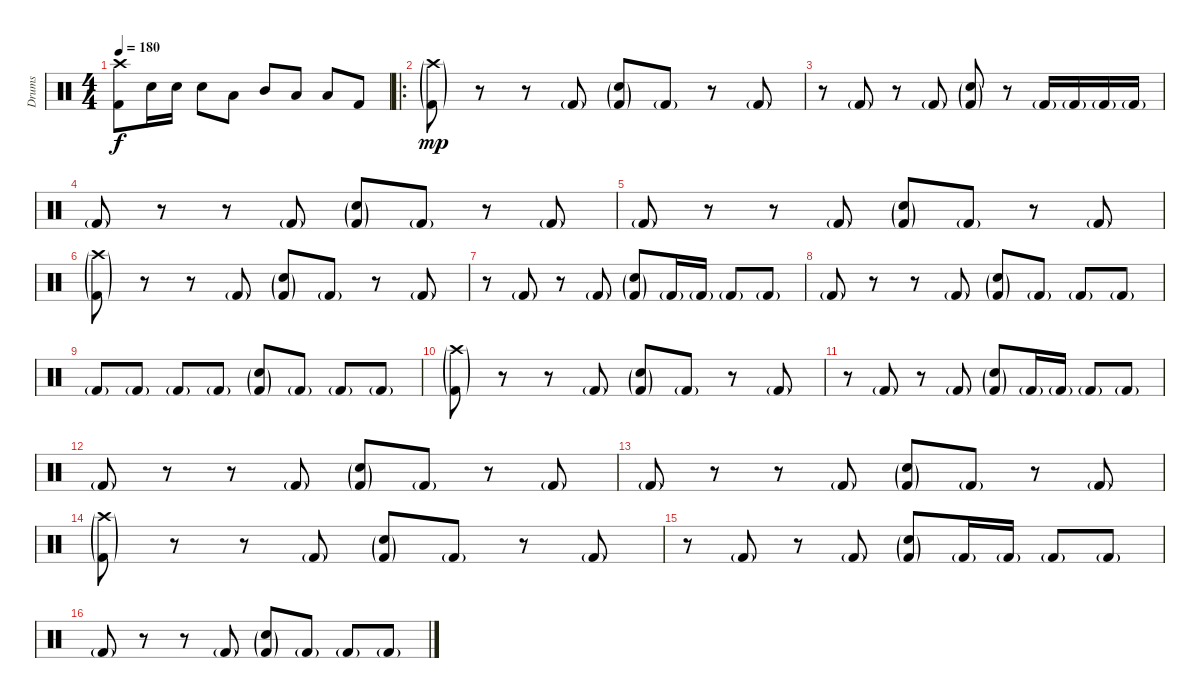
\track ("Drums" "Drums") {instrument percussion}
\staff {score}
\articulation defaults
\ts (4 4)
\tempo 180
\clef neutral
\ks c
("Crash high (hit)" "Kick (hit) 2").8{dy f} "Snare (hit) 2".16 "Snare (hit) 2".16 "Snare (hit) 2".8 "Low Tom (hit)".8 "Mid Tom (hit)".8 "Low Tom (hit)".8 "Low Floor Tom (hit)".8 "Kick (hit) 2".8 |
\ro
("Crash high (hit)"{g} "Kick (hit) 2"{g}).8{dy mp} r.8 r.8 "Kick (hit) 2"{g}.8 ("Snare (hit) 2"{g} "Kick (hit) 2"{g}).8 "Kick (hit) 2"{g}.8 r.8 "Kick (hit) 2"{g}.8 |
r.8 "Kick (hit) 2"{g}.8 r.8 "Kick (hit) 2"{g}.8 ("Snare (hit) 2"{g} "Kick (hit) 2"{g}).8 r.8 "Kick (hit) 2"{g}.16 "Kick (hit) 2"{g}.16 "Kick (hit) 2"{g}.16 "Kick (hit) 2"{g}.16 |
"Kick (hit) 2"{g}.8 r.8 r.8 "Kick (hit) 2"{g}.8 ("Snare (hit) 2"{g} "Kick (hit) 2"{g}).8 "Kick (hit) 2"{g}.8 r.8 "Kick (hit) 2"{g}.8 |
"Kick (hit) 2"{g}.8 r.8 r.8 "Kick (hit) 2"{g}.8 ("Snare (hit) 2"{g} "Kick (hit) 2"{g}).8 "Kick (hit) 2"{g}.8 r.8 "Kick (hit) 2"{g}.8 |
("Crash high (hit)"{g} "Kick (hit) 2"{g}).8 r.8 r.8 "Kick (hit) 2"{g}.8 ("Snare (hit) 2"{g} "Kick (hit) 2"{g}).8 "Kick (hit) 2"{g}.8 r.8 "Kick (hit) 2"{g}.8 |
r.8 "Kick (hit) 2"{g}.8 r.8 "Kick (hit) 2"{g}.8 ("Snare (hit) 2"{g} "Kick (hit) 2"{g}).8 "Kick (hit) 2"{g}.16 "Kick (hit) 2"{g}.16 "Kick (hit) 2"{g}.8 "Kick (hit) 2"{g}.8 |
"Kick (hit) 2"{g}.8 r.8 r.8 "Kick (hit) 2"{g}.8 ("Snare (hit) 2"{g} "Kick (hit) 2"{g}).8 "Kick (hit) 2"{g}.8 "Kick (hit) 2"{g}.8 "Kick (hit) 2"{g}.8 |
"Kick (hit) 2"{g}.8 "Kick (hit) 2"{g}.8 "Kick (hit) 2"{g}.8 "Kick (hit) 2"{g}.8 ("Snare (hit) 2"{g} "Kick (hit) 2"{g}).8 "Kick (hit) 2"{g}.8 "Kick (hit) 2"{g}.8 "Kick (hit) 2"{g}.8 |
("Crash high (hit)"{g} "Kick (hit) 2"{g}).8 r.8 r.8 "Kick (hit) 2"{g}.8 ("Snare (hit) 2"{g} "Kick (hit) 2"{g}).8 "Kick (hit) 2"{g}.8 r.8 "Kick (hit) 2"{g}.8 |
r.8 "Kick (hit) 2"{g}.8 r.8 "Kick (hit) 2"{g}.8 ("Snare (hit) 2"{g} "Kick (hit) 2"{g}).8 "Kick (hit) 2"{g}.16 "Kick (hit) 2"{g}.16 "Kick (hit) 2"{g}.8 "Kick (hit) 2"{g}.8 |
"Kick (hit) 2"{g}.8 r.8 r.8 "Kick (hit) 2"{g}.8 ("Snare (hit) 2"{g} "Kick (hit) 2"{g}).8 "Kick (hit) 2"{g}.8 r.8 "Kick (hit) 2"{g}.8 |
"Kick (hit) 2"{g}.8 r.8 r.8 "Kick (hit) 2"{g}.8 ("Snare (hit) 2"{g} "Kick (hit) 2"{g}).8 "Kick (hit) 2"{g}.8 r.8 "Kick (hit) 2"{g}.8 |
("Crash high (hit)"{g} "Kick (hit) 2"{g}).8 r.8 r.8 "Kick (hit) 2"{g}.8 ("Snare (hit) 2"{g} "Kick (hit) 2"{g}).8 "Kick (hit) 2"{g}.8 r.8 "Kick (hit) 2"{g}.8 |
r.8 "Kick (hit) 2"{g}.8 r.8 "Kick (hit) 2"{g}.8 ("Snare (hit) 2"{g} "Kick (hit) 2"{g}).8 "Kick (hit) 2"{g}.16 "Kick (hit) 2"{g}.16 "Kick (hit) 2"{g}.8 "Kick (hit) 2"{g}.8 |
"Kick (hit) 2"{g}.8 r.8 r.8 "Kick (hit) 2"{g}.8 ("Snare (hit) 2"{g} "Kick (hit) 2"{g}).8 "Kick (hit) 2"{g}.8 "Kick (hit) 2"{g}.8 "Kick (hit) 2"{g}.8
